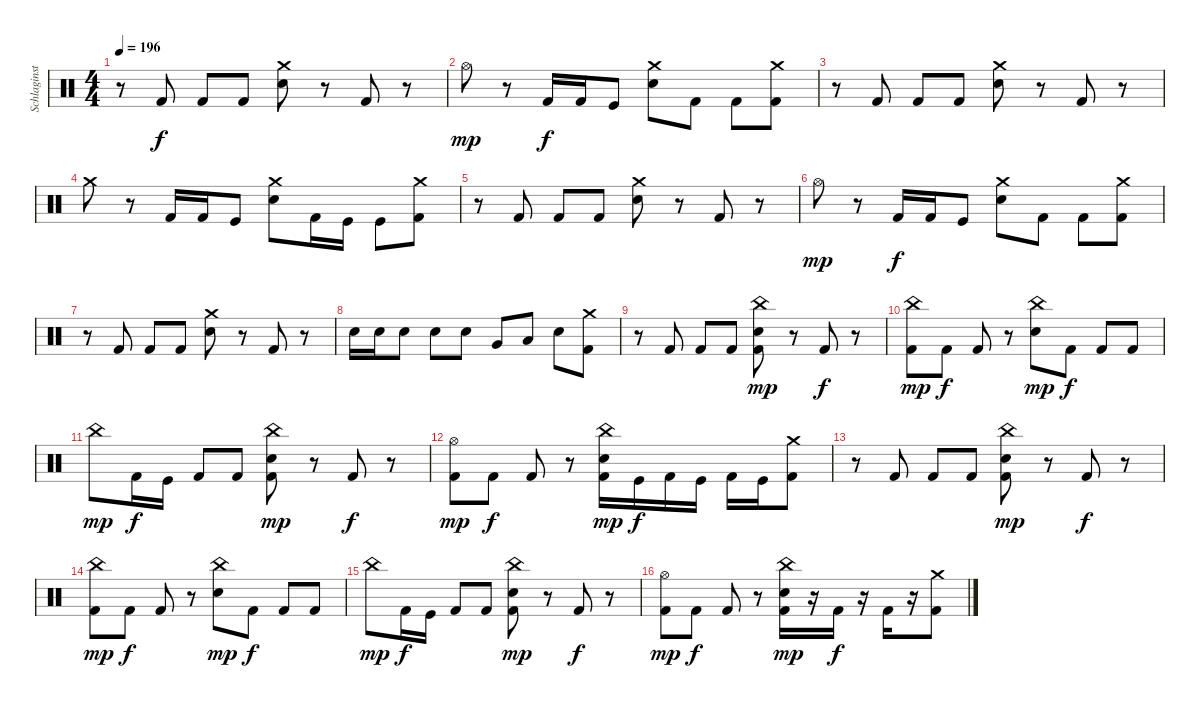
\track ("Schlaginstrumente - Auswahl" "Schlaginst") {instrument percussion}
\staff
\articulation defaults
\ts (4 4)
\tempo 196
\clef neutral
\ks c
r.8{dy f} "Kick (hit) 2".8 "Kick (hit) 2".8 "Kick (hit) 2".8 ("Crash medium (hit)" "Snare (hit) 2").8 r.8 "Kick (hit) 2".8 r.8 |
"Hi-Hat (open)".8{dy mp} r.8 "Kick (hit) 2".16{dy f} "Kick (hit) 2".16 "Kick (hit)".8 ("Crash medium (hit)" "Electric Snare (hit)").8 "Kick (hit) 2".8 "Kick (hit) 2".8 ("Crash medium (hit)" "Kick (hit) 2").8 |
r.8 "Kick (hit) 2".8 "Kick (hit) 2".8 "Kick (hit) 2".8 ("Crash medium (hit)" "Snare (hit) 2").8 r.8 "Kick (hit) 2".8 r.8 |
"Crash medium (hit)".8 r.8 "Kick (hit) 2".16 "Kick (hit) 2".16 "Kick (hit)".8 ("Crash medium (hit)" "Electric Snare (hit)").8 "Kick (hit) 2".16 "Kick (hit)".16 "Kick (hit)".8 ("Crash medium (hit)" "Kick (hit) 2").8 |
r.8 "Kick (hit) 2".8 "Kick (hit) 2".8 "Kick (hit) 2".8 ("Crash medium (hit)" "Snare (hit) 2").8 r.8 "Kick (hit) 2".8 r.8 |
"Hi-Hat (open)".8{dy mp} r.8 "Kick (hit) 2".16{dy f} "Kick (hit) 2".16 "Kick (hit)".8 ("Crash medium (hit)" "Electric Snare (hit)").8 "Kick (hit) 2".8 "Kick (hit) 2".8 ("Crash medium (hit)" "Kick (hit) 2").8 |
r.8 "Kick (hit) 2".8 "Kick (hit) 2".8 "Kick (hit) 2".8 ("Crash medium (hit)" "Snare (hit) 2").8 r.8 "Kick (hit) 2".8 r.8 |
"Electric Snare (hit)".16 "Electric Snare (hit)".16 "Electric Snare (hit)".8 "Electric Snare (hit)".8 "Electric Snare (hit)".8 "Very Low Tom (hit)".8 "Low Floor Tom (hit)".8 "Electric Snare (hit)".8 ("Crash medium (hit)" "Kick (hit) 2").8 |
r.8 "Kick (hit) 2".8 "Kick (hit) 2".8 "Kick (hit) 2".8 ("China (hit)" "Snare (hit) 2" "Kick (hit) 2").8{dy mp} r.8 "Kick (hit) 2".8{dy f} r.8 |
("China (hit)" "Kick (hit) 2").8{dy mp} "Kick (hit) 2".8{dy f} "Kick (hit) 2".8 r.8 ("China (hit)" "Snare (hit) 2").8{dy mp} "Kick (hit) 2".8{dy f} "Kick (hit) 2".8 "Kick (hit) 2".8 |
"China (hit)".8{dy mp} "Kick (hit) 2".16{dy f} "Kick (hit)".16 "Kick (hit) 2".8 "Kick (hit) 2".8 ("China (hit)" "Snare (hit) 2" "Kick (hit) 2").8{dy mp} r.8 "Kick (hit) 2".8{dy f} r.8 |
("Hi-Hat (open)" "Kick (hit) 2").8{dy mp} "Kick (hit) 2".8{dy f} "Kick (hit) 2".8 r.8 ("China (hit)" "Snare (hit) 2" "Kick (hit) 2").16{dy mp} "Kick (hit)".16{dy f} "Kick (hit) 2".16 "Kick (hit)".16 "Kick (hit) 2".16 "Kick (hit)".16 ("Crash medium (hit)" "Kick (hit) 2").8 |
r.8 "Kick (hit) 2".8 "Kick (hit) 2".8 "Kick (hit) 2".8 ("China (hit)" "Snare (hit) 2" "Kick (hit) 2").8{dy mp} r.8 "Kick (hit) 2".8{dy f} r.8 |
("China (hit)" "Kick (hit) 2").8{dy mp} "Kick (hit) 2".8{dy f} "Kick (hit) 2".8 r.8 ("China (hit)" "Snare (hit) 2").8{dy mp} "Kick (hit) 2".8{dy f} "Kick (hit) 2".8 "Kick (hit) 2".8 |
"China (hit)".8{dy mp} "Kick (hit) 2".16{dy f} "Kick (hit)".16 "Kick (hit) 2".8 "Kick (hit) 2".8 ("China (hit)" "Snare (hit) 2" "Kick (hit) 2").8{dy mp} r.8 "Kick (hit) 2".8{dy f} r.8 |
("Hi-Hat (open)" "Kick (hit) 2").8{dy mp} "Kick (hit) 2".8{dy f} "Kick (hit) 2".8 r.8 ("China (hit)" "Snare (hit) 2" "Kick (hit) 2").16{dy mp} r.16 "Kick (hit) 2".16{dy f} r.16 "Kick (hit) 2".16 r.16 ("Crash medium (hit)" "Kick (hit) 2").8
